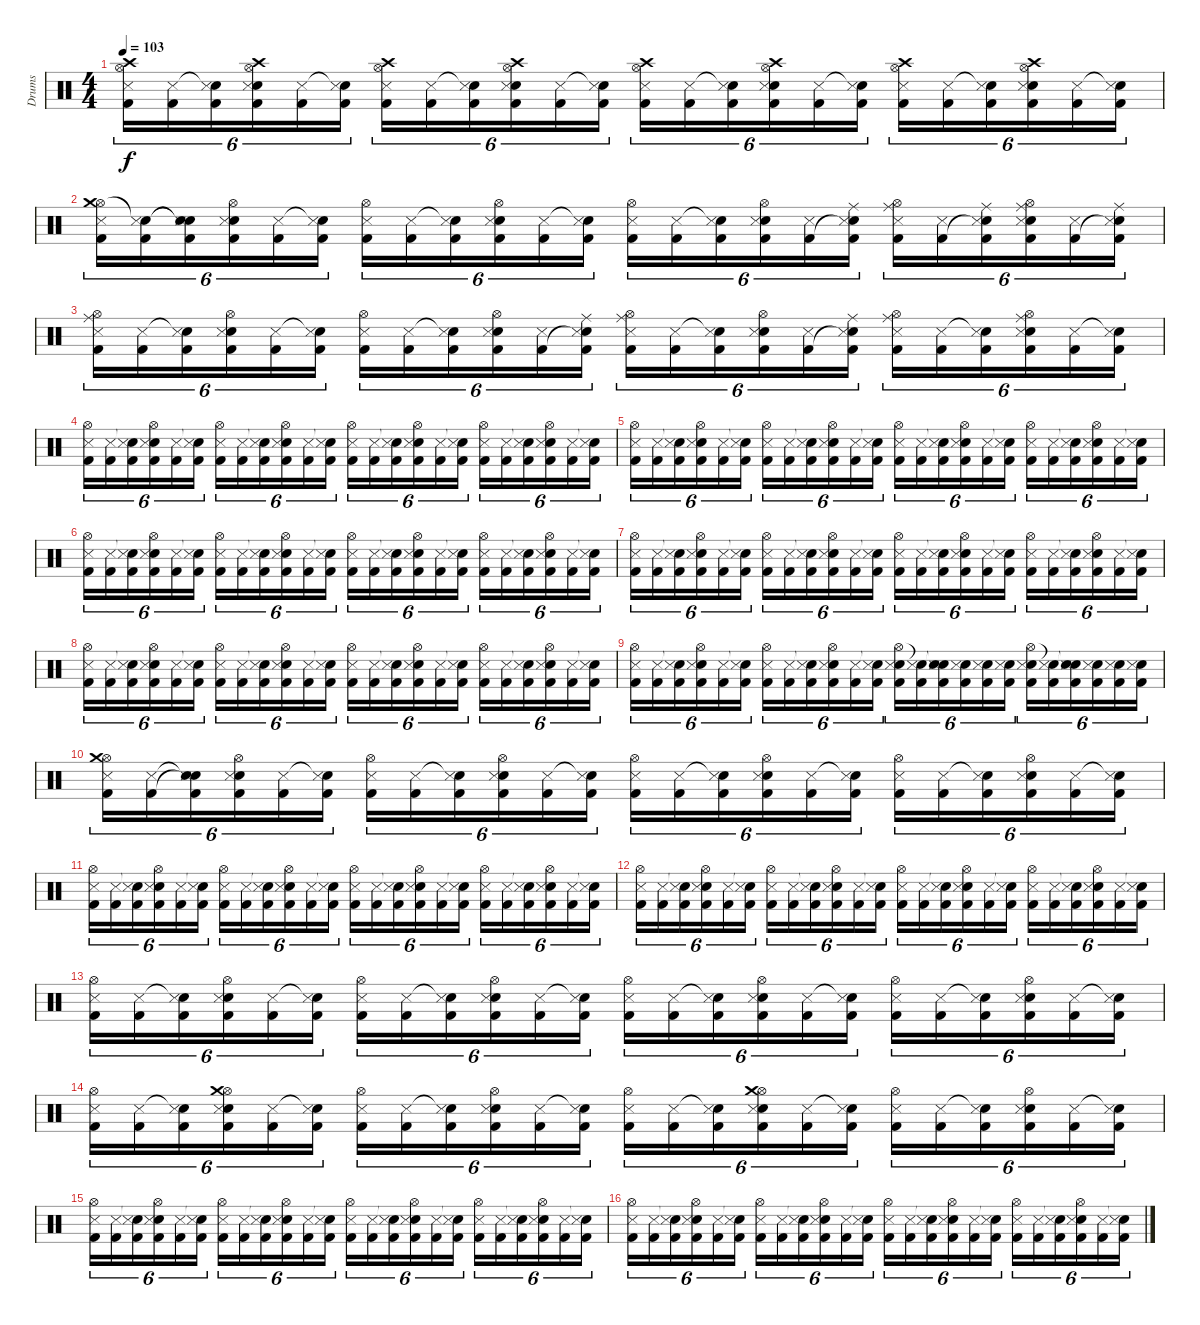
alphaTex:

\track ("Drums" "Drums") {instrument percussion}
\staff {score}
\articulation defaults
\ts (4 4)
\tempo 103
\clef neutral
\ks c
("Crash high (hit)" "Hi-Hat (open)" "Snare (side stick) 3" "Kick (hit) 2").16{tu (6 4) dy f} ("Snare (side stick) 3" "Kick (hit) 2").16{tu (6 4)} ("Snare (hit)"{t} "Snare (side stick) 3" "Kick (hit) 2").16{tu (6 4)} ("Crash high (hit)" "Hi-Hat (open)" "Electric Snare (hit)" "Snare (side stick) 3" "Kick (hit) 2").16{tu (6 4)} ("Snare (side stick) 3" "Kick (hit) 2").16{tu (6 4)} ("Snare (hit)"{t} "Snare (side stick) 3" "Kick (hit) 2").16{tu (6 4)} ("Crash high (hit)" "Hi-Hat (open)" "Snare (side stick) 3" "Kick (hit) 2").16{tu (6 4)} ("Snare (side stick) 3" "Kick (hit) 2").16{tu (6 4)} ("Snare (hit)"{t} "Snare (side stick) 3" "Kick (hit) 2").16{tu (6 4)} ("Crash high (hit)" "Hi-Hat (open)" "Electric Snare (hit)" "Snare (side stick) 3" "Kick (hit) 2").16{tu (6 4)} ("Snare (side stick) 3" "Kick (hit) 2").16{tu (6 4)} ("Snare (hit)"{t} "Snare (side stick) 3" "Kick (hit) 2").16{tu (6 4)} ("Crash high (hit)" "Hi-Hat (open)" "Snare (side stick) 3" "Kick (hit) 2").16{tu (6 4)} ("Snare (side stick) 3" "Kick (hit) 2").16{tu (6 4)} ("Snare (hit)"{t} "Snare (side stick) 3" "Kick (hit) 2").16{tu (6 4)} ("Crash high (hit)" "Hi-Hat (open)" "Electric Snare (hit)" "Snare (side stick) 3" "Kick (hit) 2").16{tu (6 4)} ("Snare (side stick) 3" "Kick (hit) 2").16{tu (6 4)} ("Snare (hit)"{t} "Snare (side stick) 3" "Kick (hit) 2").16{tu (6 4)} ("Crash high (hit)" "Hi-Hat (open)" "Snare (side stick) 3" "Kick (hit) 2").16{tu (6 4)} ("Snare (side stick) 3" "Kick (hit) 2").16{tu (6 4)} ("Snare (hit)"{t} "Snare (side stick) 3" "Kick (hit) 2").16{tu (6 4)} ("Crash high (hit)" "Hi-Hat (open)" "Electric Snare (hit)" "Snare (side stick) 3" "Kick (hit) 2").16{tu (6 4)} ("Snare (side stick) 3" "Kick (hit) 2").16{tu (6 4)} ("Snare (hit)"{t} "Snare (side stick) 3" "Kick (hit) 2").16{tu (6 4)} |
("Hi-Hat (open)" "Crash medium (hit)" "Snare (side stick) 3" "Kick (hit) 2").16{tu (6 4)} ("Snare (hit)"{t} "Snare (side stick) 3" "Kick (hit) 2").16{tu (6 4)} ("Snare (hit)"{t} "Snare (hit)"{t} "Snare (side stick) 3" "Kick (hit) 2").16{tu (6 4)} ("Hi-Hat (open)" "Electric Snare (hit)" "Snare (side stick) 3" "Kick (hit) 2").16{tu (6 4)} ("Snare (side stick) 3" "Kick (hit) 2").16{tu (6 4)} ("Snare (hit)"{t} "Snare (side stick) 3" "Kick (hit) 2").16{tu (6 4)} ("Hi-Hat (open)" "Snare (side stick) 3" "Kick (hit) 2").16{tu (6 4)} ("Snare (side stick) 3" "Kick (hit) 2").16{tu (6 4)} ("Snare (hit)"{t} "Snare (side stick) 3" "Kick (hit) 2").16{tu (6 4)} ("Hi-Hat (open)" "Electric Snare (hit)" "Snare (side stick) 3" "Kick (hit) 2").16{tu (6 4)} ("Snare (side stick) 3" "Kick (hit) 2").16{tu (6 4)} ("Snare (hit)"{t} "Snare (side stick) 3" "Kick (hit) 2").16{tu (6 4)} ("Hi-Hat (open)" "Snare (side stick) 3" "Kick (hit) 2").16{tu (6 4)} ("Snare (side stick) 3" "Kick (hit) 2").16{tu (6 4)} ("Snare (hit)"{t} "Snare (side stick) 3" "Kick (hit) 2").16{tu (6 4)} ("Hi-Hat (open)" "Electric Snare (hit)" "Snare (side stick) 3" "Kick (hit) 2").16{tu (6 4)} ("Snare (side stick) 3" "Kick (hit) 2").16{tu (6 4)} ("Ride (middle)" "Snare (hit)"{t} "Snare (side stick) 3" "Kick (hit) 2").16{tu (6 4)} ("Ride (middle)" "Hi-Hat (open)" "Snare (side stick) 3" "Kick (hit) 2").16{tu (6 4)} ("Snare (side stick) 3" "Kick (hit) 2").16{tu (6 4)} ("Ride (middle)" "Snare (hit)"{t} "Snare (side stick) 3" "Kick (hit) 2").16{tu (6 4)} ("Ride (middle)" "Hi-Hat (open)" "Electric Snare (hit)" "Snare (side stick) 3" "Kick (hit) 2").16{tu (6 4)} ("Snare (side stick) 3" "Kick (hit) 2").16{tu (6 4)} ("Ride (middle)" "Snare (hit)"{t} "Snare (side stick) 3" "Kick (hit) 2").16{tu (6 4)} |
("Ride (middle)" "Hi-Hat (open)" "Snare (side stick) 3" "Kick (hit) 2").16{tu (6 4)} ("Snare (side stick) 3" "Kick (hit) 2").16{tu (6 4)} ("Snare (hit)"{t} "Snare (side stick) 3" "Kick (hit) 2").16{tu (6 4)} ("Hi-Hat (open)" "Electric Snare (hit)" "Snare (side stick) 3" "Kick (hit) 2").16{tu (6 4)} ("Snare (side stick) 3" "Kick (hit) 2").16{tu (6 4)} ("Snare (hit)"{t} "Snare (side stick) 3" "Kick (hit) 2").16{tu (6 4)} ("Hi-Hat (open)" "Snare (side stick) 3" "Kick (hit) 2").16{tu (6 4)} ("Snare (side stick) 3" "Kick (hit) 2").16{tu (6 4)} ("Snare (hit)"{t} "Snare (side stick) 3" "Kick (hit) 2").16{tu (6 4)} ("Hi-Hat (open)" "Electric Snare (hit)" "Snare (side stick) 3" "Kick (hit) 2").16{tu (6 4)} ("Snare (side stick) 3" "Kick (hit) 2").16{tu (6 4)} ("Ride (middle)" "Snare (hit)"{t} "Snare (side stick) 3" "Kick (hit) 2").16{tu (6 4)} ("Ride (middle)" "Hi-Hat (open)" "Snare (side stick) 3" "Kick (hit) 2").16{tu (6 4)} ("Snare (side stick) 3" "Kick (hit) 2").16{tu (6 4)} ("Snare (hit)"{t} "Snare (side stick) 3" "Kick (hit) 2").16{tu (6 4)} ("Hi-Hat (open)" "Electric Snare (hit)" "Snare (side stick) 3" "Kick (hit) 2").16{tu (6 4)} ("Snare (side stick) 3" "Kick (hit) 2").16{tu (6 4)} ("Ride (middle)" "Snare (hit)"{t} "Snare (side stick) 3" "Kick (hit) 2").16{tu (6 4)} ("Ride (middle)" "Hi-Hat (open)" "Snare (side stick) 3" "Kick (hit) 2").16{tu (6 4)} ("Snare (side stick) 3" "Kick (hit) 2").16{tu (6 4)} ("Snare (hit)"{t} "Snare (side stick) 3" "Kick (hit) 2").16{tu (6 4)} ("Ride (middle)" "Hi-Hat (open)" "Electric Snare (hit)" "Snare (side stick) 3" "Kick (hit) 2").16{tu (6 4)} ("Snare (side stick) 3" "Kick (hit) 2").16{tu (6 4)} ("Snare (hit)"{t} "Snare (side stick) 3" "Kick (hit) 2").16{tu (6 4)} |
("Hi-Hat (open)" "Snare (side stick) 3" "Kick (hit) 2").16{tu (6 4)} ("Snare (side stick) 3" "Kick (hit) 2").16{tu (6 4)} ("Snare (hit)"{t} "Snare (side stick) 3" "Kick (hit) 2").16{tu (6 4)} ("Hi-Hat (open)" "Electric Snare (hit)" "Snare (side stick) 3" "Kick (hit) 2").16{tu (6 4)} ("Snare (side stick) 3" "Kick (hit) 2").16{tu (6 4)} ("Snare (hit)"{t} "Snare (side stick) 3" "Kick (hit) 2").16{tu (6 4)} ("Hi-Hat (open)" "Snare (side stick) 3" "Kick (hit) 2").16{tu (6 4)} ("Snare (side stick) 3" "Kick (hit) 2").16{tu (6 4)} ("Snare (hit)"{t} "Snare (side stick) 3" "Kick (hit) 2").16{tu (6 4)} ("Hi-Hat (open)" "Electric Snare (hit)" "Snare (side stick) 3" "Kick (hit) 2").16{tu (6 4)} ("Snare (side stick) 3" "Kick (hit) 2").16{tu (6 4)} ("Snare (hit)"{t} "Snare (side stick) 3" "Kick (hit) 2").16{tu (6 4)} ("Hi-Hat (open)" "Snare (side stick) 3" "Kick (hit) 2").16{tu (6 4)} ("Snare (side stick) 3" "Kick (hit) 2").16{tu (6 4)} ("Snare (hit)"{t} "Snare (side stick) 3" "Kick (hit) 2").16{tu (6 4)} ("Hi-Hat (open)" "Electric Snare (hit)" "Snare (side stick) 3" "Kick (hit) 2").16{tu (6 4)} ("Snare (side stick) 3" "Kick (hit) 2").16{tu (6 4)} ("Snare (hit)"{t} "Snare (side stick) 3" "Kick (hit) 2").16{tu (6 4)} ("Hi-Hat (open)" "Snare (side stick) 3" "Kick (hit) 2").16{tu (6 4)} ("Snare (side stick) 3" "Kick (hit) 2").16{tu (6 4)} ("Snare (hit)"{t} "Snare (side stick) 3" "Kick (hit) 2").16{tu (6 4)} ("Hi-Hat (open)" "Electric Snare (hit)" "Snare (side stick) 3" "Kick (hit) 2").16{tu (6 4)} ("Snare (side stick) 3" "Kick (hit) 2").16{tu (6 4)} ("Snare (hit)"{t} "Snare (side stick) 3" "Kick (hit) 2").16{tu (6 4)} |
("Hi-Hat (open)" "Snare (side stick) 3" "Kick (hit) 2").16{tu (6 4)} ("Snare (side stick) 3" "Kick (hit) 2").16{tu (6 4)} ("Snare (hit)"{t} "Snare (side stick) 3" "Kick (hit) 2").16{tu (6 4)} ("Hi-Hat (open)" "Electric Snare (hit)" "Snare (side stick) 3" "Kick (hit) 2").16{tu (6 4)} ("Snare (side stick) 3" "Kick (hit) 2").16{tu (6 4)} ("Snare (hit)"{t} "Snare (side stick) 3" "Kick (hit) 2").16{tu (6 4)} ("Hi-Hat (open)" "Snare (side stick) 3" "Kick (hit) 2").16{tu (6 4)} ("Snare (side stick) 3" "Kick (hit) 2").16{tu (6 4)} ("Snare (hit)"{t} "Snare (side stick) 3" "Kick (hit) 2").16{tu (6 4)} ("Hi-Hat (open)" "Electric Snare (hit)" "Snare (side stick) 3" "Kick (hit) 2").16{tu (6 4)} ("Snare (side stick) 3" "Kick (hit) 2").16{tu (6 4)} ("Snare (hit)"{t} "Snare (side stick) 3" "Kick (hit) 2").16{tu (6 4)} ("Hi-Hat (open)" "Snare (side stick) 3" "Kick (hit) 2").16{tu (6 4)} ("Snare (side stick) 3" "Kick (hit) 2").16{tu (6 4)} ("Snare (hit)"{t} "Snare (side stick) 3" "Kick (hit) 2").16{tu (6 4)} ("Hi-Hat (open)" "Electric Snare (hit)" "Snare (side stick) 3" "Kick (hit) 2").16{tu (6 4)} ("Snare (side stick) 3" "Kick (hit) 2").16{tu (6 4)} ("Snare (hit)"{t} "Snare (side stick) 3" "Kick (hit) 2").16{tu (6 4)} ("Hi-Hat (open)" "Snare (side stick) 3" "Kick (hit) 2").16{tu (6 4)} ("Snare (side stick) 3" "Kick (hit) 2").16{tu (6 4)} ("Snare (hit)"{t} "Snare (side stick) 3" "Kick (hit) 2").16{tu (6 4)} ("Hi-Hat (open)" "Electric Snare (hit)" "Snare (side stick) 3" "Kick (hit) 2").16{tu (6 4)} ("Snare (side stick) 3" "Kick (hit) 2").16{tu (6 4)} ("Snare (hit)"{t} "Snare (side stick) 3" "Kick (hit) 2").16{tu (6 4)} |
("Hi-Hat (open)" "Snare (side stick) 3" "Kick (hit) 2").16{tu (6 4)} ("Snare (side stick) 3" "Kick (hit) 2").16{tu (6 4)} ("Snare (hit)"{t} "Snare (side stick) 3" "Kick (hit) 2").16{tu (6 4)} ("Hi-Hat (open)" "Electric Snare (hit)" "Snare (side stick) 3" "Kick (hit) 2").16{tu (6 4)} ("Snare (side stick) 3" "Kick (hit) 2").16{tu (6 4)} ("Snare (hit)"{t} "Snare (side stick) 3" "Kick (hit) 2").16{tu (6 4)} ("Hi-Hat (open)" "Snare (side stick) 3" "Kick (hit) 2").16{tu (6 4)} ("Snare (side stick) 3" "Kick (hit) 2").16{tu (6 4)} ("Snare (hit)"{t} "Snare (side stick) 3" "Kick (hit) 2").16{tu (6 4)} ("Hi-Hat (open)" "Electric Snare (hit)" "Snare (side stick) 3" "Kick (hit) 2").16{tu (6 4)} ("Snare (side stick) 3" "Kick (hit) 2").16{tu (6 4)} ("Snare (hit)"{t} "Snare (side stick) 3" "Kick (hit) 2").16{tu (6 4)} ("Hi-Hat (open)" "Snare (side stick) 3" "Kick (hit) 2").16{tu (6 4)} ("Snare (side stick) 3" "Kick (hit) 2").16{tu (6 4)} ("Snare (hit)"{t} "Snare (side stick) 3" "Kick (hit) 2").16{tu (6 4)} ("Hi-Hat (open)" "Electric Snare (hit)" "Snare (side stick) 3" "Kick (hit) 2").16{tu (6 4)} ("Snare (side stick) 3" "Kick (hit) 2").16{tu (6 4)} ("Snare (hit)"{t} "Snare (side stick) 3" "Kick (hit) 2").16{tu (6 4)} ("Hi-Hat (open)" "Snare (side stick) 3" "Kick (hit) 2").16{tu (6 4)} ("Snare (side stick) 3" "Kick (hit) 2").16{tu (6 4)} ("Snare (hit)"{t} "Snare (side stick) 3" "Kick (hit) 2").16{tu (6 4)} ("Hi-Hat (open)" "Electric Snare (hit)" "Snare (side stick) 3" "Kick (hit) 2").16{tu (6 4)} ("Snare (side stick) 3" "Kick (hit) 2").16{tu (6 4)} ("Snare (hit)"{t} "Snare (side stick) 3" "Kick (hit) 2").16{tu (6 4)} |
("Hi-Hat (open)" "Snare (side stick) 3" "Kick (hit) 2").16{tu (6 4)} ("Snare (side stick) 3" "Kick (hit) 2").16{tu (6 4)} ("Snare (hit)"{t} "Snare (side stick) 3" "Kick (hit) 2").16{tu (6 4)} ("Hi-Hat (open)" "Electric Snare (hit)" "Snare (side stick) 3" "Kick (hit) 2").16{tu (6 4)} ("Snare (side stick) 3" "Kick (hit) 2").16{tu (6 4)} ("Snare (hit)"{t} "Snare (side stick) 3" "Kick (hit) 2").16{tu (6 4)} ("Hi-Hat (open)" "Snare (side stick) 3" "Kick (hit) 2").16{tu (6 4)} ("Snare (side stick) 3" "Kick (hit) 2").16{tu (6 4)} ("Snare (hit)"{t} "Snare (side stick) 3" "Kick (hit) 2").16{tu (6 4)} ("Hi-Hat (open)" "Electric Snare (hit)" "Snare (side stick) 3" "Kick (hit) 2").16{tu (6 4)} ("Snare (side stick) 3" "Kick (hit) 2").16{tu (6 4)} ("Snare (hit)"{t} "Snare (side stick) 3" "Kick (hit) 2").16{tu (6 4)} ("Hi-Hat (open)" "Snare (side stick) 3" "Kick (hit) 2").16{tu (6 4)} ("Snare (side stick) 3" "Kick (hit) 2").16{tu (6 4)} ("Snare (hit)"{t} "Snare (side stick) 3" "Kick (hit) 2").16{tu (6 4)} ("Hi-Hat (open)" "Electric Snare (hit)" "Snare (side stick) 3" "Kick (hit) 2").16{tu (6 4)} ("Snare (side stick) 3" "Kick (hit) 2").16{tu (6 4)} ("Snare (hit)"{t} "Snare (side stick) 3" "Kick (hit) 2").16{tu (6 4)} ("Hi-Hat (open)" "Snare (side stick) 3" "Kick (hit) 2").16{tu (6 4)} ("Snare (side stick) 3" "Kick (hit) 2").16{tu (6 4)} ("Snare (hit)"{t} "Snare (side stick) 3" "Kick (hit) 2").16{tu (6 4)} ("Hi-Hat (open)" "Electric Snare (hit)" "Snare (side stick) 3" "Kick (hit) 2").16{tu (6 4)} ("Snare (side stick) 3" "Kick (hit) 2").16{tu (6 4)} ("Snare (hit)"{t} "Snare (side stick) 3" "Kick (hit) 2").16{tu (6 4)} |
("Hi-Hat (open)" "Snare (side stick) 3" "Kick (hit) 2").16{tu (6 4)} ("Snare (side stick) 3" "Kick (hit) 2").16{tu (6 4)} ("Snare (hit)"{t} "Snare (side stick) 3" "Kick (hit) 2").16{tu (6 4)} ("Hi-Hat (open)" "Electric Snare (hit)" "Snare (side stick) 3" "Kick (hit) 2").16{tu (6 4)} ("Snare (side stick) 3" "Kick (hit) 2").16{tu (6 4)} ("Snare (hit)"{t} "Snare (side stick) 3" "Kick (hit) 2").16{tu (6 4)} ("Hi-Hat (open)" "Snare (side stick) 3" "Kick (hit) 2").16{tu (6 4)} ("Snare (side stick) 3" "Kick (hit) 2").16{tu (6 4)} ("Snare (hit)"{t} "Snare (side stick) 3" "Kick (hit) 2").16{tu (6 4)} ("Hi-Hat (open)" "Electric Snare (hit)" "Snare (side stick) 3" "Kick (hit) 2").16{tu (6 4)} ("Snare (side stick) 3" "Kick (hit) 2").16{tu (6 4)} ("Snare (hit)"{t} "Snare (side stick) 3" "Kick (hit) 2").16{tu (6 4)} ("Hi-Hat (open)" "Snare (side stick) 3" "Kick (hit) 2").16{tu (6 4)} ("Snare (side stick) 3" "Kick (hit) 2").16{tu (6 4)} ("Snare (hit)"{t} "Snare (side stick) 3" "Kick (hit) 2").16{tu (6 4)} ("Hi-Hat (open)" "Electric Snare (hit)" "Snare (side stick) 3" "Kick (hit) 2").16{tu (6 4)} ("Snare (side stick) 3" "Kick (hit) 2").16{tu (6 4)} ("Snare (hit)"{t} "Snare (side stick) 3" "Kick (hit) 2").16{tu (6 4)} ("Hi-Hat (open)" "Snare (side stick) 3" "Kick (hit) 2").16{tu (6 4)} ("Snare (side stick) 3" "Kick (hit) 2").16{tu (6 4)} ("Snare (hit)"{t} "Snare (side stick) 3" "Kick (hit) 2").16{tu (6 4)} ("Hi-Hat (open)" "Electric Snare (hit)" "Snare (side stick) 3" "Kick (hit) 2").16{tu (6 4)} ("Snare (side stick) 3" "Kick (hit) 2").16{tu (6 4)} ("Snare (hit)"{t} "Snare (side stick) 3" "Kick (hit) 2").16{tu (6 4)} |
("Hi-Hat (open)" "Snare (side stick) 3" "Kick (hit) 2").16{tu (6 4)} ("Snare (side stick) 3" "Kick (hit) 2").16{tu (6 4)} ("Snare (hit)"{t} "Snare (side stick) 3" "Kick (hit) 2").16{tu (6 4)} ("Hi-Hat (open)" "Electric Snare (hit)" "Snare (side stick) 3" "Kick (hit) 2").16{tu (6 4)} ("Snare (side stick) 3" "Kick (hit) 2").16{tu (6 4)} ("Snare (hit)"{t} "Snare (side stick) 3" "Kick (hit) 2").16{tu (6 4)} ("Hi-Hat (open)" "Snare (side stick) 3" "Kick (hit) 2").16{tu (6 4)} ("Snare (side stick) 3" "Kick (hit) 2").16{tu (6 4)} ("Snare (hit)"{t} "Snare (side stick) 3" "Kick (hit) 2").16{tu (6 4)} ("Hi-Hat (open)" "Electric Snare (hit)" "Snare (side stick) 3" "Kick (hit) 2").16{tu (6 4)} ("Snare (side stick) 3" "Kick (hit) 2").16{tu (6 4)} ("Snare (hit)"{t} "Snare (side stick) 3" "Kick (hit) 2").16{tu (6 4)} ("Hi-Hat (open)" "Electric Snare (hit)" "Snare (side stick) 3" "Kick (hit) 2").16{tu (6 4)} ("Electric Snare (hit)"{t} "Snare (side stick) 3" "Kick (hit) 2").16{tu (6 4)} ("Snare (hit)"{t} "Electric Snare (hit)" "Snare (side stick) 3" "Kick (hit) 2").16{tu (6 4)} ("Electric Snare (hit)" "Snare (side stick) 3" "Kick (hit) 2").16{tu (6 4)} ("Electric Snare (hit)" "Snare (side stick) 3" "Kick (hit) 2").16{tu (6 4)} ("Electric Snare (hit)" "Snare (side stick) 3" "Kick (hit) 2").16{tu (6 4)} ("Hi-Hat (open)" "Electric Snare (hit)" "Snare (side stick) 3" "Kick (hit) 2").16{tu (6 4)} ("Electric Snare (hit)"{t} "Snare (side stick) 3" "Kick (hit) 2").16{tu (6 4)} ("Snare (hit)"{t} "Electric Snare (hit)" "Snare (side stick) 3" "Kick (hit) 2").16{tu (6 4)} ("Electric Snare (hit)" "Snare (side stick) 3" "Kick (hit) 2").16{tu (6 4)} ("Electric Snare (hit)" "Snare (side stick) 3" "Kick (hit) 2").16{tu (6 4)} ("Electric Snare (hit)" "Snare (side stick) 3" "Kick (hit) 2").16{tu (6 4)} |
("Hi-Hat (open)" "Crash medium (hit)" "Snare (side stick) 3" "Kick (hit) 2").16{tu (6 4)} ("Snare (side stick) 3" "Kick (hit) 2").16{tu (6 4)} ("Snare (hit)"{t} "Snare (hit)"{t} "Snare (side stick) 3" "Kick (hit) 2").16{tu (6 4)} ("Hi-Hat (open)" "Electric Snare (hit)" "Snare (side stick) 3" "Kick (hit) 2").16{tu (6 4)} ("Snare (side stick) 3" "Kick (hit) 2").16{tu (6 4)} ("Snare (hit)"{t} "Snare (side stick) 3" "Kick (hit) 2").16{tu (6 4)} ("Hi-Hat (open)" "Snare (side stick) 3" "Kick (hit) 2").16{tu (6 4)} ("Snare (side stick) 3" "Kick (hit) 2").16{tu (6 4)} ("Snare (hit)"{t} "Snare (side stick) 3" "Kick (hit) 2").16{tu (6 4)} ("Hi-Hat (open)" "Electric Snare (hit)" "Snare (side stick) 3" "Kick (hit) 2").16{tu (6 4)} ("Snare (side stick) 3" "Kick (hit) 2").16{tu (6 4)} ("Snare (hit)"{t} "Snare (side stick) 3" "Kick (hit) 2").16{tu (6 4)} ("Hi-Hat (open)" "Snare (side stick) 3" "Kick (hit) 2").16{tu (6 4)} ("Snare (side stick) 3" "Kick (hit) 2").16{tu (6 4)} ("Snare (hit)"{t} "Snare (side stick) 3" "Kick (hit) 2").16{tu (6 4)} ("Hi-Hat (open)" "Electric Snare (hit)" "Snare (side stick) 3" "Kick (hit) 2").16{tu (6 4)} ("Snare (side stick) 3" "Kick (hit) 2").16{tu (6 4)} ("Snare (hit)"{t} "Snare (side stick) 3" "Kick (hit) 2").16{tu (6 4)} ("Hi-Hat (open)" "Snare (side stick) 3" "Kick (hit) 2").16{tu (6 4)} ("Snare (side stick) 3" "Kick (hit) 2").16{tu (6 4)} ("Snare (hit)"{t} "Snare (side stick) 3" "Kick (hit) 2").16{tu (6 4)} ("Hi-Hat (open)" "Electric Snare (hit)" "Snare (side stick) 3" "Kick (hit) 2").16{tu (6 4)} ("Snare (side stick) 3" "Kick (hit) 2").16{tu (6 4)} ("Snare (hit)"{t} "Snare (side stick) 3" "Kick (hit) 2").16{tu (6 4)} |
("Hi-Hat (open)" "Snare (side stick) 3" "Kick (hit) 2").16{tu (6 4)} ("Snare (side stick) 3" "Kick (hit) 2").16{tu (6 4)} ("Snare (hit)"{t} "Snare (side stick) 3" "Kick (hit) 2").16{tu (6 4)} ("Hi-Hat (open)" "Electric Snare (hit)" "Snare (side stick) 3" "Kick (hit) 2").16{tu (6 4)} ("Snare (side stick) 3" "Kick (hit) 2").16{tu (6 4)} ("Snare (hit)"{t} "Snare (side stick) 3" "Kick (hit) 2").16{tu (6 4)} ("Hi-Hat (open)" "Snare (side stick) 3" "Kick (hit) 2").16{tu (6 4)} ("Snare (side stick) 3" "Kick (hit) 2").16{tu (6 4)} ("Snare (hit)"{t} "Snare (side stick) 3" "Kick (hit) 2").16{tu (6 4)} ("Hi-Hat (open)" "Electric Snare (hit)" "Snare (side stick) 3" "Kick (hit) 2").16{tu (6 4)} ("Snare (side stick) 3" "Kick (hit) 2").16{tu (6 4)} ("Snare (hit)"{t} "Snare (side stick) 3" "Kick (hit) 2").16{tu (6 4)} ("Hi-Hat (open)" "Snare (side stick) 3" "Kick (hit) 2").16{tu (6 4)} ("Snare (side stick) 3" "Kick (hit) 2").16{tu (6 4)} ("Snare (hit)"{t} "Snare (side stick) 3" "Kick (hit) 2").16{tu (6 4)} ("Hi-Hat (open)" "Electric Snare (hit)" "Snare (side stick) 3" "Kick (hit) 2").16{tu (6 4)} ("Snare (side stick) 3" "Kick (hit) 2").16{tu (6 4)} ("Snare (hit)"{t} "Snare (side stick) 3" "Kick (hit) 2").16{tu (6 4)} ("Hi-Hat (open)" "Snare (side stick) 3" "Kick (hit) 2").16{tu (6 4)} ("Snare (side stick) 3" "Kick (hit) 2").16{tu (6 4)} ("Snare (hit)"{t} "Snare (side stick) 3" "Kick (hit) 2").16{tu (6 4)} ("Hi-Hat (open)" "Electric Snare (hit)" "Snare (side stick) 3" "Kick (hit) 2").16{tu (6 4)} ("Snare (side stick) 3" "Kick (hit) 2").16{tu (6 4)} ("Snare (hit)"{t} "Snare (side stick) 3" "Kick (hit) 2").16{tu (6 4)} |
("Hi-Hat (open)" "Snare (side stick) 3" "Kick (hit) 2").16{tu (6 4)} ("Snare (side stick) 3" "Kick (hit) 2").16{tu (6 4)} ("Snare (hit)"{t} "Snare (side stick) 3" "Kick (hit) 2").16{tu (6 4)} ("Hi-Hat (open)" "Electric Snare (hit)" "Snare (side stick) 3" "Kick (hit) 2").16{tu (6 4)} ("Snare (side stick) 3" "Kick (hit) 2").16{tu (6 4)} ("Snare (hit)"{t} "Snare (side stick) 3" "Kick (hit) 2").16{tu (6 4)} ("Hi-Hat (open)" "Snare (side stick) 3" "Kick (hit) 2").16{tu (6 4)} ("Snare (side stick) 3" "Kick (hit) 2").16{tu (6 4)} ("Snare (hit)"{t} "Snare (side stick) 3" "Kick (hit) 2").16{tu (6 4)} ("Hi-Hat (open)" "Electric Snare (hit)" "Snare (side stick) 3" "Kick (hit) 2").16{tu (6 4)} ("Snare (side stick) 3" "Kick (hit) 2").16{tu (6 4)} ("Snare (hit)"{t} "Snare (side stick) 3" "Kick (hit) 2").16{tu (6 4)} ("Hi-Hat (open)" "Snare (side stick) 3" "Kick (hit) 2").16{tu (6 4)} ("Snare (side stick) 3" "Kick (hit) 2").16{tu (6 4)} ("Snare (hit)"{t} "Snare (side stick) 3" "Kick (hit) 2").16{tu (6 4)} ("Hi-Hat (open)" "Electric Snare (hit)" "Snare (side stick) 3" "Kick (hit) 2").16{tu (6 4)} ("Snare (side stick) 3" "Kick (hit) 2").16{tu (6 4)} ("Snare (hit)"{t} "Snare (side stick) 3" "Kick (hit) 2").16{tu (6 4)} ("Hi-Hat (open)" "Snare (side stick) 3" "Kick (hit) 2").16{tu (6 4)} ("Snare (side stick) 3" "Kick (hit) 2").16{tu (6 4)} ("Snare (hit)"{t} "Snare (side stick) 3" "Kick (hit) 2").16{tu (6 4)} ("Hi-Hat (open)" "Electric Snare (hit)" "Snare (side stick) 3" "Kick (hit) 2").16{tu (6 4)} ("Snare (side stick) 3" "Kick (hit) 2").16{tu (6 4)} ("Snare (hit)"{t} "Snare (side stick) 3" "Kick (hit) 2").16{tu (6 4)} |
("Hi-Hat (open)" "Snare (side stick) 3" "Kick (hit) 2").16{tu (6 4)} ("Snare (side stick) 3" "Kick (hit) 2").16{tu (6 4)} ("Snare (hit)"{t} "Snare (side stick) 3" "Kick (hit) 2").16{tu (6 4)} ("Hi-Hat (open)" "Electric Snare (hit)" "Snare (side stick) 3" "Kick (hit) 2").16{tu (6 4)} ("Snare (side stick) 3" "Kick (hit) 2").16{tu (6 4)} ("Snare (hit)"{t} "Snare (side stick) 3" "Kick (hit) 2").16{tu (6 4)} ("Hi-Hat (open)" "Snare (side stick) 3" "Kick (hit) 2").16{tu (6 4)} ("Snare (side stick) 3" "Kick (hit) 2").16{tu (6 4)} ("Snare (hit)"{t} "Snare (side stick) 3" "Kick (hit) 2").16{tu (6 4)} ("Hi-Hat (open)" "Electric Snare (hit)" "Snare (side stick) 3" "Kick (hit) 2").16{tu (6 4)} ("Snare (side stick) 3" "Kick (hit) 2").16{tu (6 4)} ("Snare (hit)"{t} "Snare (side stick) 3" "Kick (hit) 2").16{tu (6 4)} ("Hi-Hat (open)" "Snare (side stick) 3" "Kick (hit) 2").16{tu (6 4)} ("Snare (side stick) 3" "Kick (hit) 2").16{tu (6 4)} ("Snare (hit)"{t} "Snare (side stick) 3" "Kick (hit) 2").16{tu (6 4)} ("Hi-Hat (open)" "Electric Snare (hit)" "Snare (side stick) 3" "Kick (hit) 2").16{tu (6 4)} ("Snare (side stick) 3" "Kick (hit) 2").16{tu (6 4)} ("Snare (hit)"{t} "Snare (side stick) 3" "Kick (hit) 2").16{tu (6 4)} ("Hi-Hat (open)" "Snare (side stick) 3" "Kick (hit) 2").16{tu (6 4)} ("Snare (side stick) 3" "Kick (hit) 2").16{tu (6 4)} ("Snare (hit)"{t} "Snare (side stick) 3" "Kick (hit) 2").16{tu (6 4)} ("Hi-Hat (open)" "Electric Snare (hit)" "Snare (side stick) 3" "Kick (hit) 2").16{tu (6 4)} ("Snare (side stick) 3" "Kick (hit) 2").16{tu (6 4)} ("Snare (hit)"{t} "Snare (side stick) 3" "Kick (hit) 2").16{tu (6 4)} |
("Hi-Hat (open)" "Snare (side stick) 3" "Kick (hit) 2").16{tu (6 4)} ("Snare (side stick) 3" "Kick (hit) 2").16{tu (6 4)} ("Snare (hit)"{t} "Snare (side stick) 3" "Kick (hit) 2").16{tu (6 4)} ("Hi-Hat (open)" "Electric Snare (hit)" "Crash medium (hit)" "Snare (side stick) 3" "Kick (hit) 2").16{tu (6 4)} ("Snare (side stick) 3" "Kick (hit) 2").16{tu (6 4)} ("Snare (hit)"{t} "Snare (side stick) 3" "Kick (hit) 2").16{tu (6 4)} ("Hi-Hat (open)" "Snare (side stick) 3" "Kick (hit) 2").16{tu (6 4)} ("Snare (side stick) 3" "Kick (hit) 2").16{tu (6 4)} ("Snare (hit)"{t} "Snare (side stick) 3" "Kick (hit) 2").16{tu (6 4)} ("Hi-Hat (open)" "Electric Snare (hit)" "Snare (side stick) 3" "Kick (hit) 2").16{tu (6 4)} ("Snare (side stick) 3" "Kick (hit) 2").16{tu (6 4)} ("Snare (hit)"{t} "Snare (side stick) 3" "Kick (hit) 2").16{tu (6 4)} ("Hi-Hat (open)" "Snare (side stick) 3" "Kick (hit) 2").16{tu (6 4)} ("Snare (side stick) 3" "Kick (hit) 2").16{tu (6 4)} ("Snare (hit)"{t} "Snare (side stick) 3" "Kick (hit) 2").16{tu (6 4)} ("Hi-Hat (open)" "Electric Snare (hit)" "Crash medium (hit)" "Snare (side stick) 3" "Kick (hit) 2").16{tu (6 4)} ("Snare (side stick) 3" "Kick (hit) 2").16{tu (6 4)} ("Snare (hit)"{t} "Snare (side stick) 3" "Kick (hit) 2").16{tu (6 4)} ("Hi-Hat (open)" "Snare (side stick) 3" "Kick (hit) 2").16{tu (6 4)} ("Snare (side stick) 3" "Kick (hit) 2").16{tu (6 4)} ("Snare (hit)"{t} "Snare (side stick) 3" "Kick (hit) 2").16{tu (6 4)} ("Hi-Hat (open)" "Electric Snare (hit)" "Snare (side stick) 3" "Kick (hit) 2").16{tu (6 4)} ("Snare (side stick) 3" "Kick (hit) 2").16{tu (6 4)} ("Snare (hit)"{t} "Snare (side stick) 3" "Kick (hit) 2").16{tu (6 4)} |
("Hi-Hat (open)" "Snare (side stick) 3" "Kick (hit) 2").16{tu (6 4)} ("Snare (side stick) 3" "Kick (hit) 2").16{tu (6 4)} ("Snare (hit)"{t} "Snare (side stick) 3" "Kick (hit) 2").16{tu (6 4)} ("Hi-Hat (open)" "Electric Snare (hit)" "Snare (side stick) 3" "Kick (hit) 2").16{tu (6 4)} ("Snare (side stick) 3" "Kick (hit) 2").16{tu (6 4)} ("Snare (hit)"{t} "Snare (side stick) 3" "Kick (hit) 2").16{tu (6 4)} ("Hi-Hat (open)" "Snare (side stick) 3" "Kick (hit) 2").16{tu (6 4)} ("Snare (side stick) 3" "Kick (hit) 2").16{tu (6 4)} ("Snare (hit)"{t} "Snare (side stick) 3" "Kick (hit) 2").16{tu (6 4)} ("Hi-Hat (open)" "Electric Snare (hit)" "Snare (side stick) 3" "Kick (hit) 2").16{tu (6 4)} ("Snare (side stick) 3" "Kick (hit) 2").16{tu (6 4)} ("Snare (hit)"{t} "Snare (side stick) 3" "Kick (hit) 2").16{tu (6 4)} ("Hi-Hat (open)" "Snare (side stick) 3" "Kick (hit) 2").16{tu (6 4)} ("Snare (side stick) 3" "Kick (hit) 2").16{tu (6 4)} ("Snare (hit)"{t} "Snare (side stick) 3" "Kick (hit) 2").16{tu (6 4)} ("Hi-Hat (open)" "Electric Snare (hit)" "Snare (side stick) 3" "Kick (hit) 2").16{tu (6 4)} ("Snare (side stick) 3" "Kick (hit) 2").16{tu (6 4)} ("Snare (hit)"{t} "Snare (side stick) 3" "Kick (hit) 2").16{tu (6 4)} ("Hi-Hat (open)" "Snare (side stick) 3" "Kick (hit) 2").16{tu (6 4)} ("Snare (side stick) 3" "Kick (hit) 2").16{tu (6 4)} ("Snare (hit)"{t} "Snare (side stick) 3" "Kick (hit) 2").16{tu (6 4)} ("Hi-Hat (open)" "Electric Snare (hit)" "Snare (side stick) 3" "Kick (hit) 2").16{tu (6 4)} ("Snare (side stick) 3" "Kick (hit) 2").16{tu (6 4)} ("Snare (hit)"{t} "Snare (side stick) 3" "Kick (hit) 2").16{tu (6 4)} |
("Hi-Hat (open)" "Snare (side stick) 3" "Kick (hit) 2").16{tu (6 4)} ("Snare (side stick) 3" "Kick (hit) 2").16{tu (6 4)} ("Snare (hit)"{t} "Snare (side stick) 3" "Kick (hit) 2").16{tu (6 4)} ("Hi-Hat (open)" "Electric Snare (hit)" "Snare (side stick) 3" "Kick (hit) 2").16{tu (6 4)} ("Snare (side stick) 3" "Kick (hit) 2").16{tu (6 4)} ("Snare (hit)"{t} "Snare (side stick) 3" "Kick (hit) 2").16{tu (6 4)} ("Hi-Hat (open)" "Snare (side stick) 3" "Kick (hit) 2").16{tu (6 4)} ("Snare (side stick) 3" "Kick (hit) 2").16{tu (6 4)} ("Snare (hit)"{t} "Snare (side stick) 3" "Kick (hit) 2").16{tu (6 4)} ("Hi-Hat (open)" "Electric Snare (hit)" "Snare (side stick) 3" "Kick (hit) 2").16{tu (6 4)} ("Snare (side stick) 3" "Kick (hit) 2").16{tu (6 4)} ("Snare (hit)"{t} "Snare (side stick) 3" "Kick (hit) 2").16{tu (6 4)} ("Hi-Hat (open)" "Snare (side stick) 3" "Kick (hit) 2").16{tu (6 4)} ("Snare (side stick) 3" "Kick (hit) 2").16{tu (6 4)} ("Snare (hit)"{t} "Snare (side stick) 3" "Kick (hit) 2").16{tu (6 4)} ("Hi-Hat (open)" "Electric Snare (hit)" "Snare (side stick) 3" "Kick (hit) 2").16{tu (6 4)} ("Snare (side stick) 3" "Kick (hit) 2").16{tu (6 4)} ("Snare (hit)"{t} "Snare (side stick) 3" "Kick (hit) 2").16{tu (6 4)} ("Hi-Hat (open)" "Snare (side stick) 3" "Kick (hit) 2").16{tu (6 4)} ("Snare (side stick) 3" "Kick (hit) 2").16{tu (6 4)} ("Snare (hit)"{t} "Snare (side stick) 3" "Kick (hit) 2").16{tu (6 4)} ("Hi-Hat (open)" "Electric Snare (hit)" "Snare (side stick) 3" "Kick (hit) 2").16{tu (6 4)} ("Snare (side stick) 3" "Kick (hit) 2").16{tu (6 4)} ("Snare (hit)"{t} "Snare (side stick) 3" "Kick (hit) 2").16{tu (6 4)}
